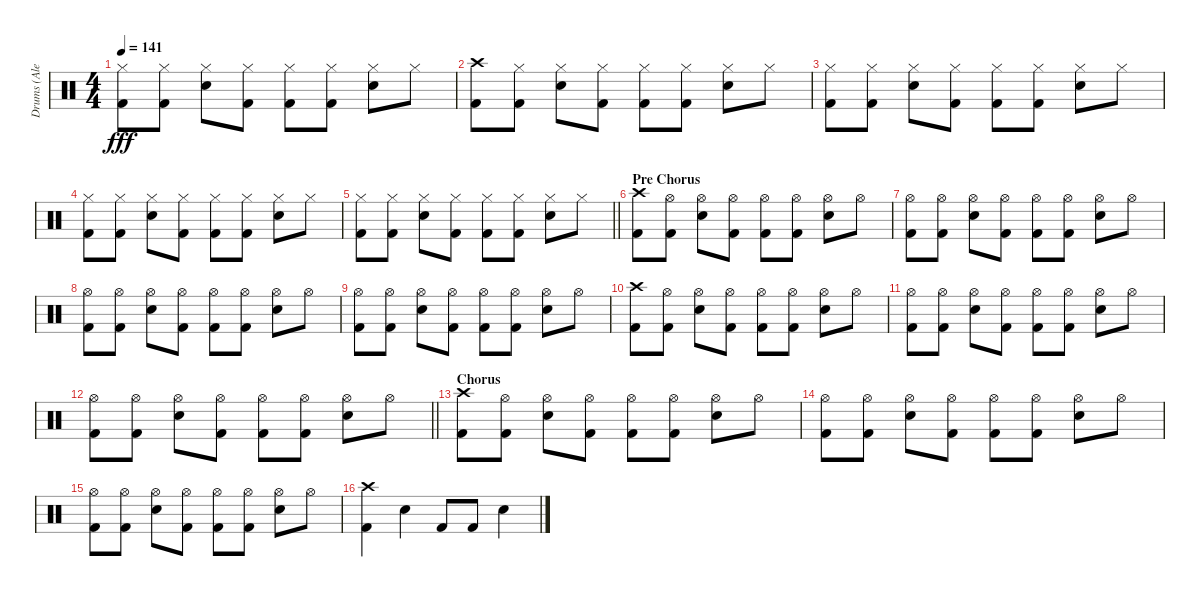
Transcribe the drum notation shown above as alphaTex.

\track ("Drums (Alex Van Halen)" "Drums (Ale") {instrument percussion}
\staff {score}
\articulation defaults
\ts (4 4)
\tempo 141
\clef neutral
\ks c
("Hi-Hat (closed)" "Kick (hit) 2").8{dy fff} ("Hi-Hat (closed)" "Kick (hit) 2").8 ("Hi-Hat (closed)" "Electric Snare (hit)").8 ("Hi-Hat (closed)" "Kick (hit) 2").8 ("Hi-Hat (closed)" "Kick (hit) 2").8 ("Hi-Hat (closed)" "Kick (hit) 2").8 ("Hi-Hat (closed)" "Electric Snare (hit)").8 "Hi-Hat (closed)".8 |
("Crash high (hit)" "Kick (hit) 2").8 ("Hi-Hat (closed)" "Kick (hit) 2").8 ("Hi-Hat (closed)" "Electric Snare (hit)").8 ("Hi-Hat (closed)" "Kick (hit) 2").8 ("Hi-Hat (closed)" "Kick (hit) 2").8 ("Hi-Hat (closed)" "Kick (hit) 2").8 ("Hi-Hat (closed)" "Electric Snare (hit)").8 "Hi-Hat (closed)".8 |
("Hi-Hat (closed)" "Kick (hit) 2").8 ("Hi-Hat (closed)" "Kick (hit) 2").8 ("Hi-Hat (closed)" "Electric Snare (hit)").8 ("Hi-Hat (closed)" "Kick (hit) 2").8 ("Hi-Hat (closed)" "Kick (hit) 2").8 ("Hi-Hat (closed)" "Kick (hit) 2").8 ("Hi-Hat (closed)" "Electric Snare (hit)").8 "Hi-Hat (closed)".8 |
("Hi-Hat (closed)" "Kick (hit) 2").8 ("Hi-Hat (closed)" "Kick (hit) 2").8 ("Hi-Hat (closed)" "Electric Snare (hit)").8 ("Hi-Hat (closed)" "Kick (hit) 2").8 ("Hi-Hat (closed)" "Kick (hit) 2").8 ("Hi-Hat (closed)" "Kick (hit) 2").8 ("Hi-Hat (closed)" "Electric Snare (hit)").8 "Hi-Hat (closed)".8 |
\barLineRight lightlight
("Hi-Hat (closed)" "Kick (hit) 2").8 ("Hi-Hat (closed)" "Kick (hit) 2").8 ("Hi-Hat (closed)" "Electric Snare (hit)").8 ("Hi-Hat (closed)" "Kick (hit) 2").8 ("Hi-Hat (closed)" "Kick (hit) 2").8 ("Hi-Hat (closed)" "Kick (hit) 2").8 ("Hi-Hat (closed)" "Electric Snare (hit)").8 "Hi-Hat (closed)".8 |
\section ("" "Pre Chorus")
("Crash high (hit)" "Kick (hit) 2").8 ("Hi-Hat (open)" "Kick (hit) 2").8 ("Hi-Hat (open)" "Electric Snare (hit)").8 ("Hi-Hat (open)" "Kick (hit) 2").8 ("Hi-Hat (open)" "Kick (hit) 2").8 ("Hi-Hat (open)" "Kick (hit) 2").8 ("Hi-Hat (open)" "Electric Snare (hit)").8 "Hi-Hat (open)".8 |
("Hi-Hat (open)" "Kick (hit) 2").8 ("Hi-Hat (open)" "Kick (hit) 2").8 ("Hi-Hat (open)" "Electric Snare (hit)").8 ("Hi-Hat (open)" "Kick (hit) 2").8 ("Hi-Hat (open)" "Kick (hit) 2").8 ("Hi-Hat (open)" "Kick (hit) 2").8 ("Hi-Hat (open)" "Electric Snare (hit)").8 "Hi-Hat (open)".8 |
("Hi-Hat (open)" "Kick (hit) 2").8 ("Hi-Hat (open)" "Kick (hit) 2").8 ("Hi-Hat (open)" "Electric Snare (hit)").8 ("Hi-Hat (open)" "Kick (hit) 2").8 ("Hi-Hat (open)" "Kick (hit) 2").8 ("Hi-Hat (open)" "Kick (hit) 2").8 ("Hi-Hat (open)" "Electric Snare (hit)").8 "Hi-Hat (open)".8 |
("Hi-Hat (open)" "Kick (hit) 2").8 ("Hi-Hat (open)" "Kick (hit) 2").8 ("Hi-Hat (open)" "Electric Snare (hit)").8 ("Hi-Hat (open)" "Kick (hit) 2").8 ("Hi-Hat (open)" "Kick (hit) 2").8 ("Hi-Hat (open)" "Kick (hit) 2").8 ("Hi-Hat (open)" "Electric Snare (hit)").8 "Hi-Hat (open)".8 |
("Crash high (hit)" "Kick (hit) 2").8 ("Hi-Hat (open)" "Kick (hit) 2").8 ("Hi-Hat (open)" "Electric Snare (hit)").8 ("Hi-Hat (open)" "Kick (hit) 2").8 ("Hi-Hat (open)" "Kick (hit) 2").8 ("Hi-Hat (open)" "Kick (hit) 2").8 ("Hi-Hat (open)" "Electric Snare (hit)").8 "Hi-Hat (open)".8 |
("Hi-Hat (open)" "Kick (hit) 2").8 ("Hi-Hat (open)" "Kick (hit) 2").8 ("Hi-Hat (open)" "Electric Snare (hit)").8 ("Hi-Hat (open)" "Kick (hit) 2").8 ("Hi-Hat (open)" "Kick (hit) 2").8 ("Hi-Hat (open)" "Kick (hit) 2").8 ("Hi-Hat (open)" "Electric Snare (hit)").8 "Hi-Hat (open)".8 |
\barLineRight lightlight
("Hi-Hat (open)" "Kick (hit) 2").8 ("Hi-Hat (open)" "Kick (hit) 2").8 ("Hi-Hat (open)" "Electric Snare (hit)").8 ("Hi-Hat (open)" "Kick (hit) 2").8 ("Hi-Hat (open)" "Kick (hit) 2").8 ("Hi-Hat (open)" "Kick (hit) 2").8 ("Hi-Hat (open)" "Electric Snare (hit)").8 "Hi-Hat (open)".8 |
\section ("" "Chorus")
("Crash high (hit)" "Kick (hit) 2").8 ("Hi-Hat (open)" "Kick (hit) 2").8 ("Hi-Hat (open)" "Electric Snare (hit)").8 ("Hi-Hat (open)" "Kick (hit) 2").8 ("Hi-Hat (open)" "Kick (hit) 2").8 ("Hi-Hat (open)" "Kick (hit) 2").8 ("Hi-Hat (open)" "Electric Snare (hit)").8 "Hi-Hat (open)".8 |
("Hi-Hat (open)" "Kick (hit) 2").8 ("Hi-Hat (open)" "Kick (hit) 2").8 ("Hi-Hat (open)" "Electric Snare (hit)").8 ("Hi-Hat (open)" "Kick (hit) 2").8 ("Hi-Hat (open)" "Kick (hit) 2").8 ("Hi-Hat (open)" "Kick (hit) 2").8 ("Hi-Hat (open)" "Electric Snare (hit)").8 "Hi-Hat (open)".8 |
("Hi-Hat (open)" "Kick (hit) 2").8 ("Hi-Hat (open)" "Kick (hit) 2").8 ("Hi-Hat (open)" "Electric Snare (hit)").8 ("Hi-Hat (open)" "Kick (hit) 2").8 ("Hi-Hat (open)" "Kick (hit) 2").8 ("Hi-Hat (open)" "Kick (hit) 2").8 ("Hi-Hat (open)" "Electric Snare (hit)").8 "Hi-Hat (open)".8 |
("Crash high (hit)" "Kick (hit) 2").4 "Electric Snare (hit)".4 "Kick (hit) 2".8 "Kick (hit) 2".8 "Electric Snare (hit)".4
